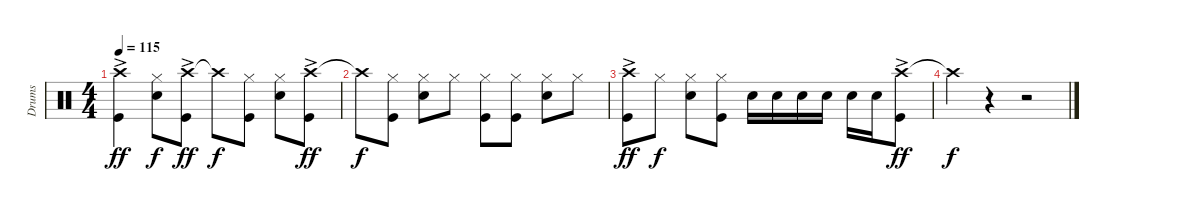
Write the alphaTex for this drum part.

\track ("Drums" "Drums") {instrument percussion}
\staff {score}
\articulation defaults
\ts (4 4)
\tempo 115
\clef neutral
\ks c
("Crash high (hit)"{ac} "Kick (hit)").4{dy ff} ("Hi-Hat (closed)" "Snare (hit) 2").8{dy f} ("Crash high (hit)"{ac} "Kick (hit)").8{dy ff} "Crash high (hit)"{t}.8{dy f} ("Hi-Hat (closed)" "Kick (hit)").8 ("Hi-Hat (closed)" "Snare (hit) 2").8 ("Crash high (hit)"{ac} "Kick (hit)").8{dy ff} |
"Crash high (hit)"{t}.8{dy f} ("Hi-Hat (closed)" "Kick (hit)").8 ("Hi-Hat (closed)" "Snare (hit) 2").8 "Hi-Hat (closed)".8 ("Hi-Hat (closed)" "Kick (hit)").8 ("Hi-Hat (closed)" "Kick (hit)").8 ("Hi-Hat (closed)" "Snare (hit) 2").8 "Hi-Hat (closed)".8 |
("Crash high (hit)"{ac} "Kick (hit)").8{dy ff} "Hi-Hat (closed)".8{dy f} ("Hi-Hat (closed)" "Snare (hit) 2").8 ("Hi-Hat (closed)" "Kick (hit)").8 "Snare (hit) 2".16 "Snare (hit) 2".16 "Snare (hit) 2".16 "Snare (hit) 2".16 "Snare (hit) 2".16 "Snare (hit) 2".16 ("Crash high (hit)"{ac} "Kick (hit)").8{dy ff} |
"Crash high (hit)"{t}.4{dy f} r.4 r.2
